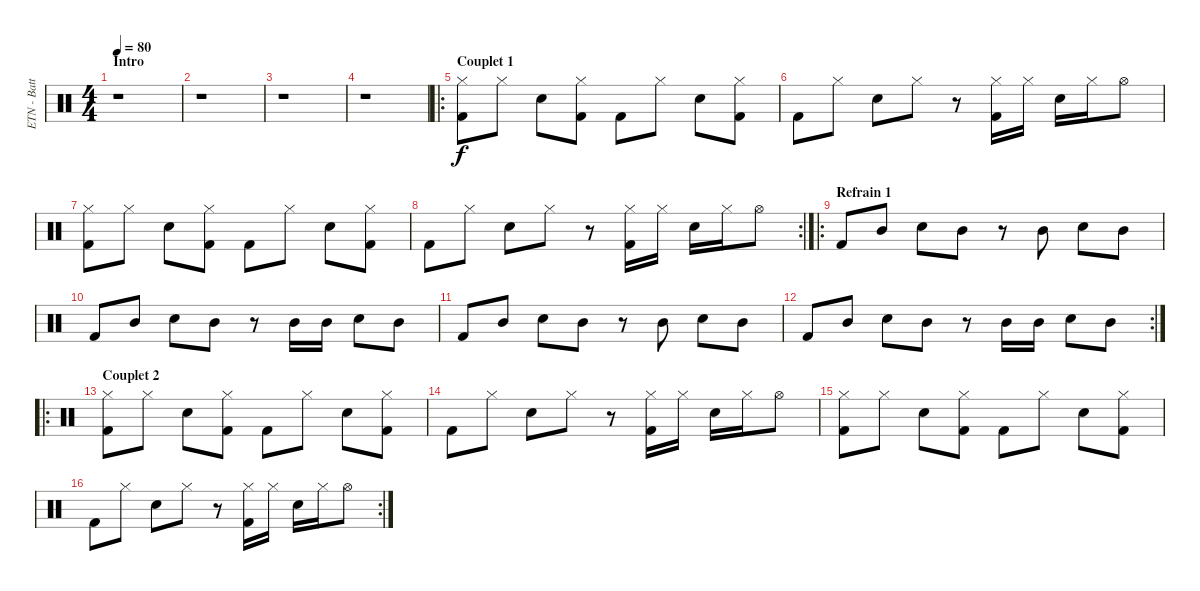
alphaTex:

\track ("ETN - Batterie" "ETN - Batt") {instrument percussion}
\staff {score}
\articulation defaults
\ts (4 4)
\section ("" "Intro")
\tempo 80
\clef neutral
\ks c
r.1{dy f} |
r.1 |
r.1 |
r.1 |
\ro
\section ("" "Couplet 1")
("Hi-Hat (closed)" "Kick (hit) 2").8 "Hi-Hat (closed)".8 "Snare (hit) 2".8 ("Hi-Hat (closed)" "Kick (hit) 2").8 "Kick (hit) 2".8 "Hi-Hat (closed)".8 "Snare (hit) 2".8 ("Hi-Hat (closed)" "Kick (hit) 2").8 |
"Kick (hit) 2".8 "Hi-Hat (closed)".8 "Snare (hit) 2".8 "Hi-Hat (closed)".8 r.8 ("Hi-Hat (closed)" "Kick (hit) 2").16 "Hi-Hat (closed)".16 "Snare (hit) 2".16 "Hi-Hat (closed)".16 "Hi-Hat (open)".8 |
("Hi-Hat (closed)" "Kick (hit) 2").8 "Hi-Hat (closed)".8 "Snare (hit) 2".8 ("Hi-Hat (closed)" "Kick (hit) 2").8 "Kick (hit) 2".8 "Hi-Hat (closed)".8 "Snare (hit) 2".8 ("Hi-Hat (closed)" "Kick (hit) 2").8 |
\rc 2 "Kick (hit) 2".8 "Hi-Hat (closed)".8 "Snare (hit) 2".8 "Hi-Hat (closed)".8
r.8 ("Hi-Hat (closed)" "Kick (hit) 2").16 "Hi-Hat (closed)".16 "Snare (hit) 2".16 "Hi-Hat (closed)".16 "Hi-Hat (open)".8 |
\ro
\section ("" "Refrain 1")
"Kick (hit) 2".8 "Mid Tom (hit)".8 "Snare (hit) 2".8 "Mid Tom (hit)".8 r.8 "Mid Tom (hit)".8 "Snare (hit) 2".8 "Mid Tom (hit)".8 |
"Kick (hit) 2".8 "Mid Tom (hit)".8 "Snare (hit) 2".8 "Mid Tom (hit)".8 r.8 "Mid Tom (hit)".16 "Mid Tom (hit)".16 "Snare (hit) 2".8 "Mid Tom (hit)".8 |
"Kick (hit) 2".8 "Mid Tom (hit)".8 "Snare (hit) 2".8 "Mid Tom (hit)".8 r.8 "Mid Tom (hit)".8 "Snare (hit) 2".8 "Mid Tom (hit)".8 |
\rc 2 "Kick (hit) 2".8 "Mid Tom (hit)".8 "Snare (hit) 2".8 "Mid Tom (hit)".8
r.8 "Mid Tom (hit)".16 "Mid Tom (hit)".16 "Snare (hit) 2".8 "Mid Tom (hit)".8 |
\ro
\section ("" "Couplet 2")
("Hi-Hat (closed)" "Kick (hit) 2").8 "Hi-Hat (closed)".8 "Snare (hit) 2".8 ("Hi-Hat (closed)" "Kick (hit) 2").8 "Kick (hit) 2".8 "Hi-Hat (closed)".8 "Snare (hit) 2".8 ("Hi-Hat (closed)" "Kick (hit) 2").8 |
"Kick (hit) 2".8 "Hi-Hat (closed)".8 "Snare (hit) 2".8 "Hi-Hat (closed)".8 r.8 ("Hi-Hat (closed)" "Kick (hit) 2").16 "Hi-Hat (closed)".16 "Snare (hit) 2".16 "Hi-Hat (closed)".16 "Hi-Hat (open)".8 |
("Hi-Hat (closed)" "Kick (hit) 2").8 "Hi-Hat (closed)".8 "Snare (hit) 2".8 ("Hi-Hat (closed)" "Kick (hit) 2").8 "Kick (hit) 2".8 "Hi-Hat (closed)".8 "Snare (hit) 2".8 ("Hi-Hat (closed)" "Kick (hit) 2").8 |
\rc 2 "Kick (hit) 2".8 "Hi-Hat (closed)".8 "Snare (hit) 2".8 "Hi-Hat (closed)".8
r.8 ("Hi-Hat (closed)" "Kick (hit) 2").16 "Hi-Hat (closed)".16 "Snare (hit) 2".16 "Hi-Hat (closed)".16 "Hi-Hat (open)".8
